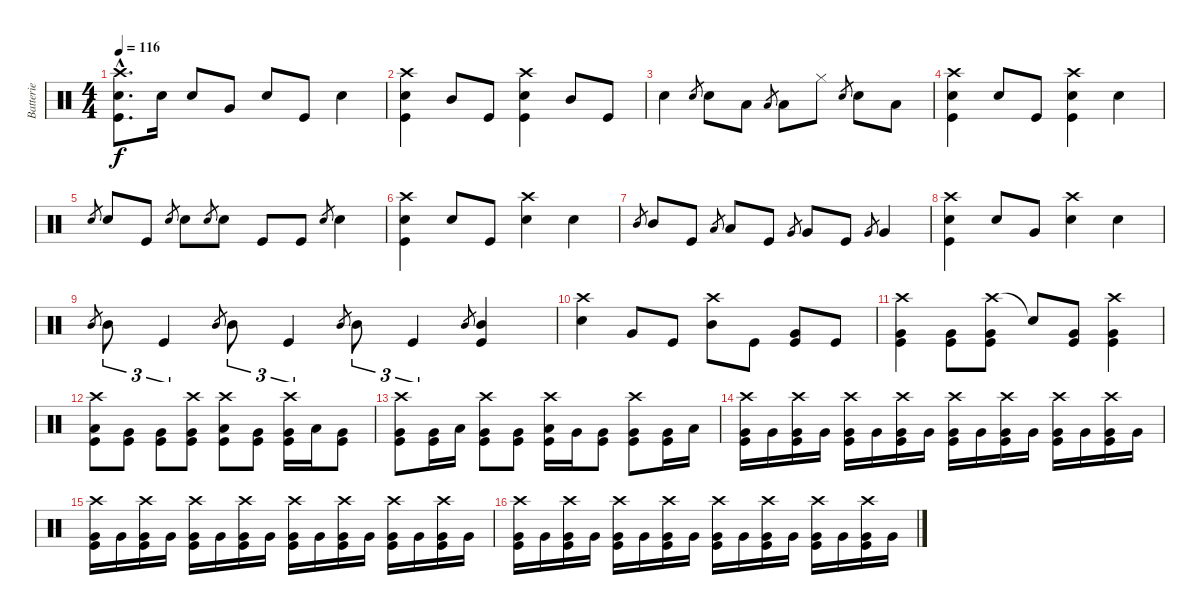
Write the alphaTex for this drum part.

\track ("Batterie" "Batterie") {instrument percussion}
\staff {score}
\articulation defaults
\ts (4 4)
\tempo 116
\clef neutral
\ks c
("Crash high (hit)"{hac} "Snare (hit) 2"{hac} "Kick (hit)"{hac}).8{d dy f} "Snare (hit) 2".16 "Snare (hit) 2".8 "Very Low Tom (hit)".8 "Snare (hit) 2".8 "Kick (hit)".8 "Snare (hit) 2".4 |
("Crash high (hit)" "Snare (hit) 2" "Kick (hit)").4 "Mid Tom (hit)".8 "Kick (hit)".8 ("Crash high (hit)" "Snare (hit) 2" "Kick (hit)").4 "Mid Tom (hit)".8 "Kick (hit)".8 |
"Snare (hit) 2".4 "Snare (hit) 2".8{gr} "Snare (hit) 2".8 "Low Tom (hit)".8 "Low Tom (hit)".8{gr} "Low Tom (hit)".8 "Hi-Hat (closed)".8 "Snare (hit) 2".8{gr} "Snare (hit) 2".8 "Low Tom (hit)".8 |
("Crash high (hit)" "Snare (hit) 2" "Kick (hit)").4 "Snare (hit) 2".8 "Kick (hit)".8 ("Crash high (hit)" "Snare (hit) 2" "Kick (hit)").4 "Snare (hit) 2".4 |
"Snare (hit) 2".8{gr} "Snare (hit) 2".8 "Kick (hit)".8 "Snare (hit) 2".8{gr} "Snare (hit) 2".8 "Snare (hit) 2".8{gr} "Snare (hit) 2".8 "Kick (hit)".8 "Kick (hit)".8 "Snare (hit) 2".8{gr} "Snare (hit) 2".4 |
("Crash high (hit)" "Snare (hit) 2" "Kick (hit)").4 "Snare (hit) 2".8 "Kick (hit)".8 ("Crash high (hit)" "Snare (hit) 2").4 "Snare (hit) 2".4 |
"Mid Tom (hit)".8{gr} "Mid Tom (hit)".8 "Kick (hit)".8 "Low Tom (hit)".8{gr} "Low Tom (hit)".8 "Kick (hit)".8 "Very Low Tom (hit)".8{gr} "Very Low Tom (hit)".8 "Kick (hit)".8 "Very Low Tom (hit)".8{gr} "Very Low Tom (hit)".4 |
("Crash high (hit)" "Snare (hit) 2" "Kick (hit)").4 "Snare (hit) 2".8 "Very Low Tom (hit)".8 ("Crash high (hit)" "Snare (hit) 2").4 "Snare (hit) 2".4 |
"Mid Tom (hit)".8{gr} "Mid Tom (hit)".8{tu (3 2)} "Kick (hit)".4{tu (3 2)} "Mid Tom (hit)".8{gr} "Mid Tom (hit)".8{tu (3 2)} "Kick (hit)".4{tu (3 2)} "Mid Tom (hit)".8{gr} "Mid Tom (hit)".8{tu (3 2)} "Kick (hit)".4{tu (3 2)} "Mid Tom (hit)".8{gr} ("Mid Tom (hit)" "Kick (hit)").4 |
("Crash high (hit)" "Snare (hit) 2").4 "Very Low Tom (hit)".8 "Kick (hit)".8 ("Crash high (hit)" "Mid Tom (hit)").8 "Kick (hit)".8 ("Very Low Tom (hit)" "Kick (hit)").8 "Kick (hit)".8 |
("Crash high (hit)" "Very Low Tom (hit)" "Kick (hit)").4 ("Very Low Tom (hit)" "Kick (hit)").8 ("Crash high (hit)" "Very Low Tom (hit)" "Kick (hit)").8 "Snare (hit)"{t}.8 ("Very Low Tom (hit)" "Kick (hit)").8 ("Crash high (hit)" "Very Low Tom (hit)" "Kick (hit)").4 |
("Crash high (hit)" "Low Tom (hit)" "Kick (hit)").8 ("Very Low Tom (hit)" "Kick (hit)").8 ("Very Low Tom (hit)" "Kick (hit)").8 ("Crash high (hit)" "Very Low Tom (hit)" "Kick (hit)").8 ("Crash high (hit)" "Low Tom (hit)" "Kick (hit)").8 ("Very Low Tom (hit)" "Kick (hit)").8 ("Crash high (hit)" "Very Low Tom (hit)" "Kick (hit)").16 "Low Tom (hit)".16 ("Very Low Tom (hit)" "Kick (hit)").8 |
("Crash high (hit)" "Very Low Tom (hit)" "Kick (hit)").8 ("Very Low Tom (hit)" "Kick (hit)").16 "Low Tom (hit)".16 ("Crash high (hit)" "Very Low Tom (hit)" "Kick (hit)").8 ("Very Low Tom (hit)" "Kick (hit)").8 ("Crash high (hit)" "Low Tom (hit)" "Kick (hit)").16 "Very Low Tom (hit)".16 ("Very Low Tom (hit)" "Kick (hit)").8 ("Crash high (hit)" "Very Low Tom (hit)" "Kick (hit)").8 ("Very Low Tom (hit)" "Kick (hit)").16 "Low Tom (hit)".16 |
("Crash high (hit)" "Very Low Tom (hit)" "Kick (hit)").16 "Very Low Tom (hit)".16 ("Crash high (hit)" "Very Low Tom (hit)" "Kick (hit)").16 "Very Low Tom (hit)".16 ("Crash high (hit)" "Very Low Tom (hit)" "Kick (hit)").16 "Very Low Tom (hit)".16 ("Crash high (hit)" "Very Low Tom (hit)" "Kick (hit)").16 "Very Low Tom (hit)".16 ("Crash high (hit)" "Very Low Tom (hit)" "Kick (hit)").16 "Very Low Tom (hit)".16 ("Crash high (hit)" "Very Low Tom (hit)" "Kick (hit)").16 "Very Low Tom (hit)".16 ("Crash high (hit)" "Very Low Tom (hit)" "Kick (hit)").16 "Very Low Tom (hit)".16 ("Crash high (hit)" "Very Low Tom (hit)" "Kick (hit)").16 "Very Low Tom (hit)".16 |
("Crash high (hit)" "Very Low Tom (hit)" "Kick (hit)").16 "Very Low Tom (hit)".16 ("Crash high (hit)" "Very Low Tom (hit)" "Kick (hit)").16 "Very Low Tom (hit)".16 ("Crash high (hit)" "Very Low Tom (hit)" "Kick (hit)").16 "Very Low Tom (hit)".16 ("Crash high (hit)" "Very Low Tom (hit)" "Kick (hit)").16 "Very Low Tom (hit)".16 ("Crash high (hit)" "Very Low Tom (hit)" "Kick (hit)").16 "Very Low Tom (hit)".16 ("Crash high (hit)" "Very Low Tom (hit)" "Kick (hit)").16 "Very Low Tom (hit)".16 ("Crash high (hit)" "Very Low Tom (hit)" "Kick (hit)").16 "Very Low Tom (hit)".16 ("Crash high (hit)" "Very Low Tom (hit)" "Kick (hit)").16 "Very Low Tom (hit)".16 |
("Crash high (hit)" "Very Low Tom (hit)" "Kick (hit)").16 "Very Low Tom (hit)".16 ("Crash high (hit)" "Very Low Tom (hit)" "Kick (hit)").16 "Very Low Tom (hit)".16 ("Crash high (hit)" "Very Low Tom (hit)" "Kick (hit)").16 "Very Low Tom (hit)".16 ("Crash high (hit)" "Very Low Tom (hit)" "Kick (hit)").16 "Very Low Tom (hit)".16 ("Crash high (hit)" "Very Low Tom (hit)" "Kick (hit)").16 "Very Low Tom (hit)".16 ("Crash high (hit)" "Very Low Tom (hit)" "Kick (hit)").16 "Very Low Tom (hit)".16 ("Crash high (hit)" "Very Low Tom (hit)" "Kick (hit)").16 "Very Low Tom (hit)".16 ("Crash high (hit)" "Very Low Tom (hit)" "Kick (hit)").16 "Very Low Tom (hit)".16
